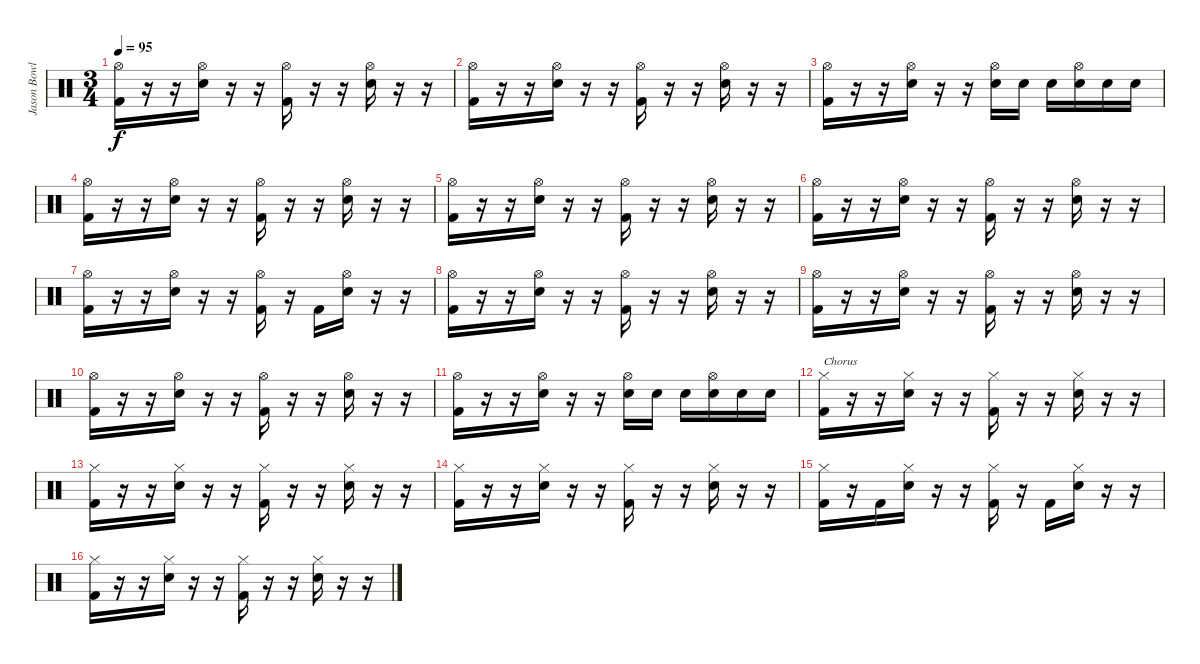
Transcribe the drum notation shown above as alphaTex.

\track ("Jason Bowld" "Jason Bowl") {instrument percussion}
\staff {score}
\articulation defaults
\ts (3 4)
\tempo 95
\clef neutral
\ks c
("Hi-Hat (open)" "Kick (hit) 2").16{dy f} r.16 r.16 ("Hi-Hat (open)" "Snare (hit) 2").16 r.16 r.16 ("Hi-Hat (open)" "Kick (hit) 2").16 r.16 r.16 ("Hi-Hat (open)" "Snare (hit) 2").16 r.16 r.16 |
("Hi-Hat (open)" "Kick (hit) 2").16 r.16 r.16 ("Hi-Hat (open)" "Snare (hit) 2").16 r.16 r.16 ("Hi-Hat (open)" "Kick (hit) 2").16 r.16 r.16 ("Hi-Hat (open)" "Snare (hit) 2").16 r.16 r.16 |
("Hi-Hat (open)" "Kick (hit) 2").16 r.16 r.16 ("Hi-Hat (open)" "Snare (hit) 2").16 r.16 r.16 ("Hi-Hat (open)" "Snare (hit) 2").16 "Snare (hit) 2".16 "Snare (hit) 2".16 ("Hi-Hat (open)" "Snare (hit) 2").16 "Snare (hit) 2".16 "Snare (hit) 2".16 |
("Hi-Hat (open)" "Kick (hit) 2").16 r.16 r.16 ("Hi-Hat (open)" "Snare (hit) 2").16 r.16 r.16 ("Hi-Hat (open)" "Kick (hit) 2").16 r.16 r.16 ("Hi-Hat (open)" "Snare (hit) 2").16 r.16 r.16 |
("Hi-Hat (open)" "Kick (hit) 2").16 r.16 r.16 ("Hi-Hat (open)" "Snare (hit) 2").16 r.16 r.16 ("Hi-Hat (open)" "Kick (hit) 2").16 r.16 r.16 ("Hi-Hat (open)" "Snare (hit) 2").16 r.16 r.16 |
("Hi-Hat (open)" "Kick (hit) 2").16 r.16 r.16 ("Hi-Hat (open)" "Snare (hit) 2").16 r.16 r.16 ("Hi-Hat (open)" "Kick (hit) 2").16 r.16 r.16 ("Hi-Hat (open)" "Snare (hit) 2").16 r.16 r.16 |
("Hi-Hat (open)" "Kick (hit) 2").16 r.16 r.16 ("Hi-Hat (open)" "Snare (hit) 2").16 r.16 r.16 ("Hi-Hat (open)" "Kick (hit) 2").16 r.16 "Kick (hit) 2".16 ("Hi-Hat (open)" "Snare (hit) 2").16 r.16 r.16 |
("Hi-Hat (open)" "Kick (hit) 2").16 r.16 r.16 ("Hi-Hat (open)" "Snare (hit) 2").16 r.16 r.16 ("Hi-Hat (open)" "Kick (hit) 2").16 r.16 r.16 ("Hi-Hat (open)" "Snare (hit) 2").16 r.16 r.16 |
("Hi-Hat (open)" "Kick (hit) 2").16 r.16 r.16 ("Hi-Hat (open)" "Snare (hit) 2").16 r.16 r.16 ("Hi-Hat (open)" "Kick (hit) 2").16 r.16 r.16 ("Hi-Hat (open)" "Snare (hit) 2").16 r.16 r.16 |
("Hi-Hat (open)" "Kick (hit) 2").16 r.16 r.16 ("Hi-Hat (open)" "Snare (hit) 2").16 r.16 r.16 ("Hi-Hat (open)" "Kick (hit) 2").16 r.16 r.16 ("Hi-Hat (open)" "Snare (hit) 2").16 r.16 r.16 |
("Hi-Hat (open)" "Kick (hit) 2").16 r.16 r.16 ("Hi-Hat (open)" "Snare (hit) 2").16 r.16 r.16 ("Hi-Hat (open)" "Snare (hit) 2").16 "Snare (hit) 2".16 "Snare (hit) 2".16 ("Hi-Hat (open)" "Snare (hit) 2").16 "Snare (hit) 2".16 "Snare (hit) 2".16 |
("Hi-Hat (closed)" "Kick (hit) 2").16{txt "Chorus"} r.16 r.16 ("Hi-Hat (closed)" "Snare (hit) 2").16 r.16 r.16 ("Hi-Hat (closed)" "Kick (hit) 2").16 r.16 r.16 ("Hi-Hat (closed)" "Snare (hit) 2").16 r.16 r.16 |
("Hi-Hat (closed)" "Kick (hit) 2").16 r.16 r.16 ("Hi-Hat (closed)" "Snare (hit) 2").16 r.16 r.16 ("Hi-Hat (closed)" "Kick (hit) 2").16 r.16 r.16 ("Hi-Hat (closed)" "Snare (hit) 2").16 r.16 r.16 |
("Hi-Hat (closed)" "Kick (hit) 2").16 r.16 r.16 ("Hi-Hat (closed)" "Snare (hit) 2").16 r.16 r.16 ("Hi-Hat (closed)" "Kick (hit) 2").16 r.16 r.16 ("Hi-Hat (closed)" "Snare (hit) 2").16 r.16 r.16 |
("Hi-Hat (closed)" "Kick (hit) 2").16 r.16 "Kick (hit) 2".16 ("Hi-Hat (closed)" "Snare (hit) 2").16 r.16 r.16 ("Hi-Hat (closed)" "Kick (hit) 2").16 r.16 "Kick (hit) 2".16 ("Hi-Hat (closed)" "Snare (hit) 2").16 r.16 r.16 |
("Hi-Hat (closed)" "Kick (hit) 2").16 r.16 r.16 ("Hi-Hat (closed)" "Snare (hit) 2").16 r.16 r.16 ("Hi-Hat (closed)" "Kick (hit) 2").16 r.16 r.16 ("Hi-Hat (closed)" "Snare (hit) 2").16 r.16 r.16
